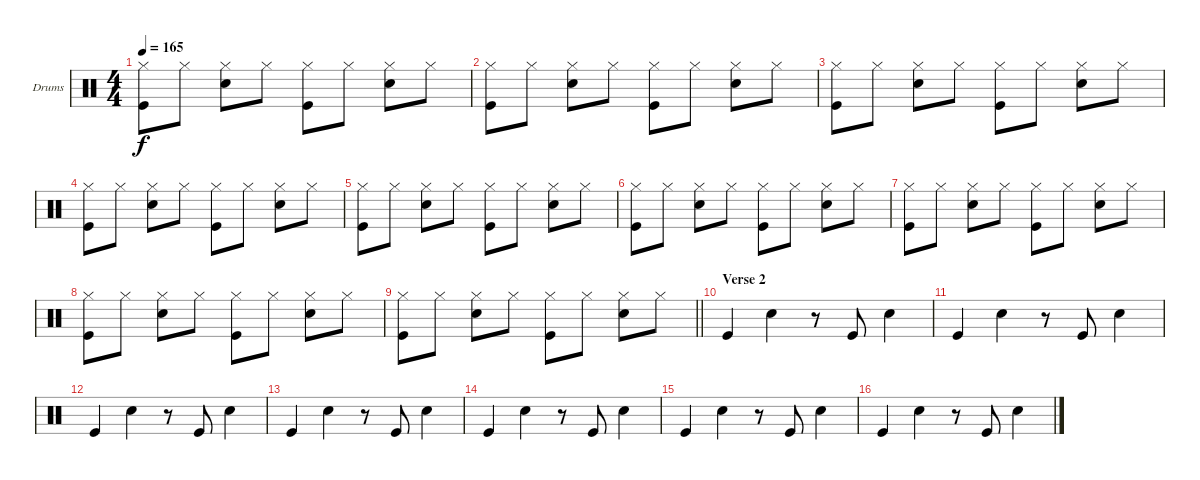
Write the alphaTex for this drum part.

\bracketExtendMode groupsimilarinstruments
\firstSystemTrackNameOrientation horizontal
\otherSystemsTrackNameOrientation horizontal
\track ("Fabrizio" "Drums") {instrument percussion}
\staff {score}
\articulation defaults
\ts (4 4)
\tempo 165
\clef neutral
\ks c
("Kick (hit)" "Hi-Hat (closed)").8{dy f} "Hi-Hat (closed)".8 ("Snare (hit) 2" "Hi-Hat (closed)").8 "Hi-Hat (closed)".8 ("Kick (hit)" "Hi-Hat (closed)").8 "Hi-Hat (closed)".8 ("Snare (hit) 2" "Hi-Hat (closed)").8 "Hi-Hat (closed)".8 |
("Kick (hit)" "Hi-Hat (closed)").8 "Hi-Hat (closed)".8 ("Snare (hit) 2" "Hi-Hat (closed)").8 "Hi-Hat (closed)".8 ("Kick (hit)" "Hi-Hat (closed)").8 "Hi-Hat (closed)".8 ("Snare (hit) 2" "Hi-Hat (closed)").8 "Hi-Hat (closed)".8 |
("Hi-Hat (closed)" "Kick (hit)").8 "Hi-Hat (closed)".8 ("Hi-Hat (closed)" "Snare (hit) 2").8 "Hi-Hat (closed)".8 ("Hi-Hat (closed)" "Kick (hit)").8 "Hi-Hat (closed)".8 ("Hi-Hat (closed)" "Snare (hit) 2").8 "Hi-Hat (closed)".8 |
("Hi-Hat (closed)" "Kick (hit)").8 "Hi-Hat (closed)".8 ("Hi-Hat (closed)" "Snare (hit) 2").8 "Hi-Hat (closed)".8 ("Hi-Hat (closed)" "Kick (hit)").8 "Hi-Hat (closed)".8 ("Hi-Hat (closed)" "Snare (hit) 2").8 "Hi-Hat (closed)".8 |
("Hi-Hat (closed)" "Kick (hit)").8 "Hi-Hat (closed)".8 ("Hi-Hat (closed)" "Snare (hit) 2").8 "Hi-Hat (closed)".8 ("Hi-Hat (closed)" "Kick (hit)").8 "Hi-Hat (closed)".8 ("Hi-Hat (closed)" "Snare (hit) 2").8 "Hi-Hat (closed)".8 |
("Kick (hit)" "Hi-Hat (closed)").8 "Hi-Hat (closed)".8 ("Snare (hit) 2" "Hi-Hat (closed)").8 "Hi-Hat (closed)".8 ("Kick (hit)" "Hi-Hat (closed)").8 "Hi-Hat (closed)".8 ("Snare (hit) 2" "Hi-Hat (closed)").8 "Hi-Hat (closed)".8 |
("Kick (hit)" "Hi-Hat (closed)").8 "Hi-Hat (closed)".8 ("Snare (hit) 2" "Hi-Hat (closed)").8 "Hi-Hat (closed)".8 ("Kick (hit)" "Hi-Hat (closed)").8 "Hi-Hat (closed)".8 ("Snare (hit) 2" "Hi-Hat (closed)").8 "Hi-Hat (closed)".8 |
("Hi-Hat (closed)" "Kick (hit)").8 "Hi-Hat (closed)".8 ("Hi-Hat (closed)" "Snare (hit) 2").8 "Hi-Hat (closed)".8 ("Hi-Hat (closed)" "Kick (hit)").8 "Hi-Hat (closed)".8 ("Hi-Hat (closed)" "Snare (hit) 2").8 "Hi-Hat (closed)".8 |
\barLineRight lightlight
("Kick (hit)" "Hi-Hat (closed)").8 "Hi-Hat (closed)".8 ("Snare (hit) 2" "Hi-Hat (closed)").8 "Hi-Hat (closed)".8 ("Kick (hit)" "Hi-Hat (closed)").8 "Hi-Hat (closed)".8 ("Snare (hit) 2" "Hi-Hat (closed)").8 "Hi-Hat (closed)".8 |
\section ("" "Verse 2")
"Kick (hit)".4 "Snare (hit) 2".4 r.8 "Kick (hit)".8 "Snare (hit) 2".4 |
"Kick (hit)".4 "Snare (hit) 2".4 r.8 "Kick (hit)".8 "Snare (hit) 2".4 |
"Kick (hit)".4 "Snare (hit) 2".4 r.8 "Kick (hit)".8 "Snare (hit) 2".4 |
"Kick (hit)".4 "Snare (hit) 2".4 r.8 "Kick (hit)".8 "Snare (hit) 2".4 |
"Kick (hit)".4 "Snare (hit) 2".4 r.8 "Kick (hit)".8 "Snare (hit) 2".4 |
"Kick (hit)".4 "Snare (hit) 2".4 r.8 "Kick (hit)".8 "Snare (hit) 2".4 |
"Kick (hit)".4 "Snare (hit) 2".4 r.8 "Kick (hit)".8 "Snare (hit) 2".4
